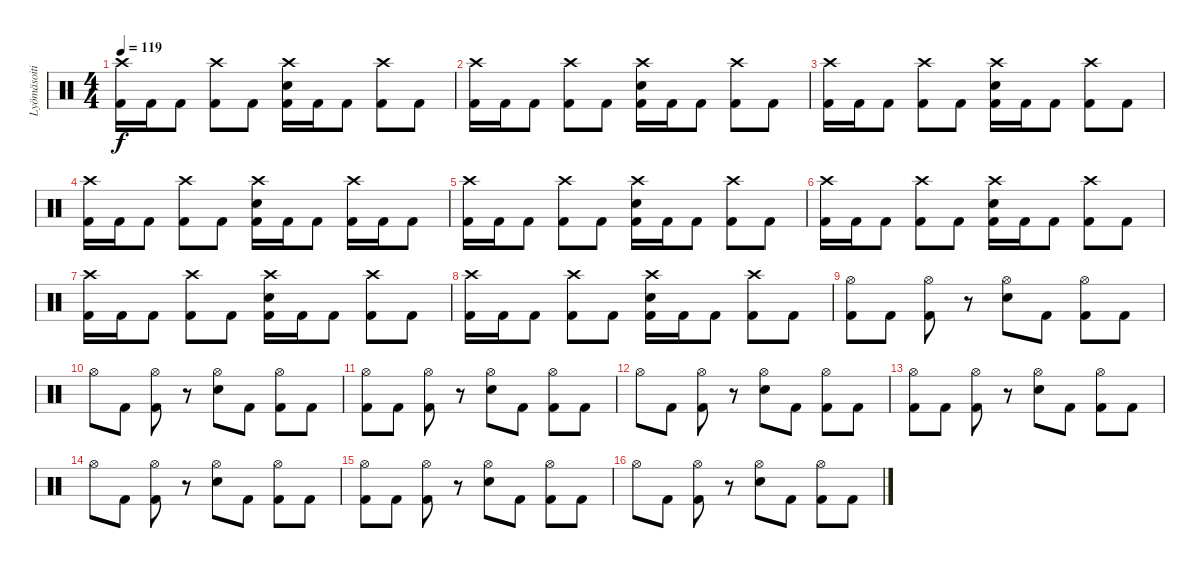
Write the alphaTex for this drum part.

\track ("Lyömäsoitin" "Lyömäsoiti") {instrument percussion}
\staff {score}
\articulation defaults
\ts (4 4)
\tempo 119
\clef neutral
\ks c
("Crash high (hit)" "Kick (hit) 2").16{dy f} "Kick (hit) 2".16 "Kick (hit) 2".8 ("Crash high (hit)" "Kick (hit) 2").8 "Kick (hit) 2".8 ("Crash high (hit)" "Snare (hit) 2" "Kick (hit) 2").16 "Kick (hit) 2".16 "Kick (hit) 2".8 ("Crash high (hit)" "Kick (hit) 2").8 "Kick (hit) 2".8 |
("Crash high (hit)" "Kick (hit) 2").16 "Kick (hit) 2".16 "Kick (hit) 2".8 ("Crash high (hit)" "Kick (hit) 2").8 "Kick (hit) 2".8 ("Crash high (hit)" "Snare (hit) 2" "Kick (hit) 2").16 "Kick (hit) 2".16 "Kick (hit) 2".8 ("Crash high (hit)" "Kick (hit) 2").8 "Kick (hit) 2".8 |
("Crash high (hit)" "Kick (hit) 2").16 "Kick (hit) 2".16 "Kick (hit) 2".8 ("Crash high (hit)" "Kick (hit) 2").8 "Kick (hit) 2".8 ("Crash high (hit)" "Snare (hit) 2" "Kick (hit) 2").16 "Kick (hit) 2".16 "Kick (hit) 2".8 ("Crash high (hit)" "Kick (hit) 2").8 "Kick (hit) 2".8 |
("Crash high (hit)" "Kick (hit) 2").16 "Kick (hit) 2".16 "Kick (hit) 2".8 ("Crash high (hit)" "Kick (hit) 2").8 "Kick (hit) 2".8 ("Crash high (hit)" "Snare (hit) 2" "Kick (hit) 2").16 "Kick (hit) 2".16 "Kick (hit) 2".8 ("Crash high (hit)" "Kick (hit) 2").16 "Kick (hit) 2".16 "Kick (hit) 2".8 |
("Crash high (hit)" "Kick (hit) 2").16 "Kick (hit) 2".16 "Kick (hit) 2".8 ("Crash high (hit)" "Kick (hit) 2").8 "Kick (hit) 2".8 ("Crash high (hit)" "Snare (hit) 2" "Kick (hit) 2").16 "Kick (hit) 2".16 "Kick (hit) 2".8 ("Crash high (hit)" "Kick (hit) 2").8 "Kick (hit) 2".8 |
("Crash high (hit)" "Kick (hit) 2").16 "Kick (hit) 2".16 "Kick (hit) 2".8 ("Crash high (hit)" "Kick (hit) 2").8 "Kick (hit) 2".8 ("Crash high (hit)" "Snare (hit) 2" "Kick (hit) 2").16 "Kick (hit) 2".16 "Kick (hit) 2".8 ("Crash high (hit)" "Kick (hit) 2").8 "Kick (hit) 2".8 |
("Crash high (hit)" "Kick (hit) 2").16 "Kick (hit) 2".16 "Kick (hit) 2".8 ("Crash high (hit)" "Kick (hit) 2").8 "Kick (hit) 2".8 ("Crash high (hit)" "Snare (hit) 2" "Kick (hit) 2").16 "Kick (hit) 2".16 "Kick (hit) 2".8 ("Crash high (hit)" "Kick (hit) 2").8 "Kick (hit) 2".8 |
("Crash high (hit)" "Kick (hit) 2").16 "Kick (hit) 2".16 "Kick (hit) 2".8 ("Crash high (hit)" "Kick (hit) 2").8 "Kick (hit) 2".8 ("Crash high (hit)" "Snare (hit) 2" "Kick (hit) 2").16 "Kick (hit) 2".16 "Kick (hit) 2".8 ("Crash high (hit)" "Kick (hit) 2").8 "Kick (hit) 2".8 |
("Hi-Hat (open)" "Kick (hit) 2").8 "Kick (hit) 2".8 ("Hi-Hat (open)" "Kick (hit) 2").8 r.8 ("Hi-Hat (open)" "Snare (hit) 2").8 "Kick (hit) 2".8 ("Hi-Hat (open)" "Kick (hit) 2").8 "Kick (hit) 2".8 |
"Hi-Hat (open)".8 "Kick (hit) 2".8 ("Hi-Hat (open)" "Kick (hit) 2").8 r.8 ("Hi-Hat (open)" "Snare (hit) 2").8 "Kick (hit) 2".8 ("Hi-Hat (open)" "Kick (hit) 2").8 "Kick (hit) 2".8 |
("Hi-Hat (open)" "Kick (hit) 2").8 "Kick (hit) 2".8 ("Hi-Hat (open)" "Kick (hit) 2").8 r.8 ("Hi-Hat (open)" "Snare (hit) 2").8 "Kick (hit) 2".8 ("Hi-Hat (open)" "Kick (hit) 2").8 "Kick (hit) 2".8 |
"Hi-Hat (open)".8 "Kick (hit) 2".8 ("Hi-Hat (open)" "Kick (hit) 2").8 r.8 ("Hi-Hat (open)" "Snare (hit) 2").8 "Kick (hit) 2".8 ("Hi-Hat (open)" "Kick (hit) 2").8 "Kick (hit) 2".8 |
("Hi-Hat (open)" "Kick (hit) 2").8 "Kick (hit) 2".8 ("Hi-Hat (open)" "Kick (hit) 2").8 r.8 ("Hi-Hat (open)" "Snare (hit) 2").8 "Kick (hit) 2".8 ("Hi-Hat (open)" "Kick (hit) 2").8 "Kick (hit) 2".8 |
"Hi-Hat (open)".8 "Kick (hit) 2".8 ("Hi-Hat (open)" "Kick (hit) 2").8 r.8 ("Hi-Hat (open)" "Snare (hit) 2").8 "Kick (hit) 2".8 ("Hi-Hat (open)" "Kick (hit) 2").8 "Kick (hit) 2".8 |
("Hi-Hat (open)" "Kick (hit) 2").8 "Kick (hit) 2".8 ("Hi-Hat (open)" "Kick (hit) 2").8 r.8 ("Hi-Hat (open)" "Snare (hit) 2").8 "Kick (hit) 2".8 ("Hi-Hat (open)" "Kick (hit) 2").8 "Kick (hit) 2".8 |
"Hi-Hat (open)".8 "Kick (hit) 2".8 ("Hi-Hat (open)" "Kick (hit) 2").8 r.8 ("Hi-Hat (open)" "Snare (hit) 2").8 "Kick (hit) 2".8 ("Hi-Hat (open)" "Kick (hit) 2").8 "Kick (hit) 2".8
